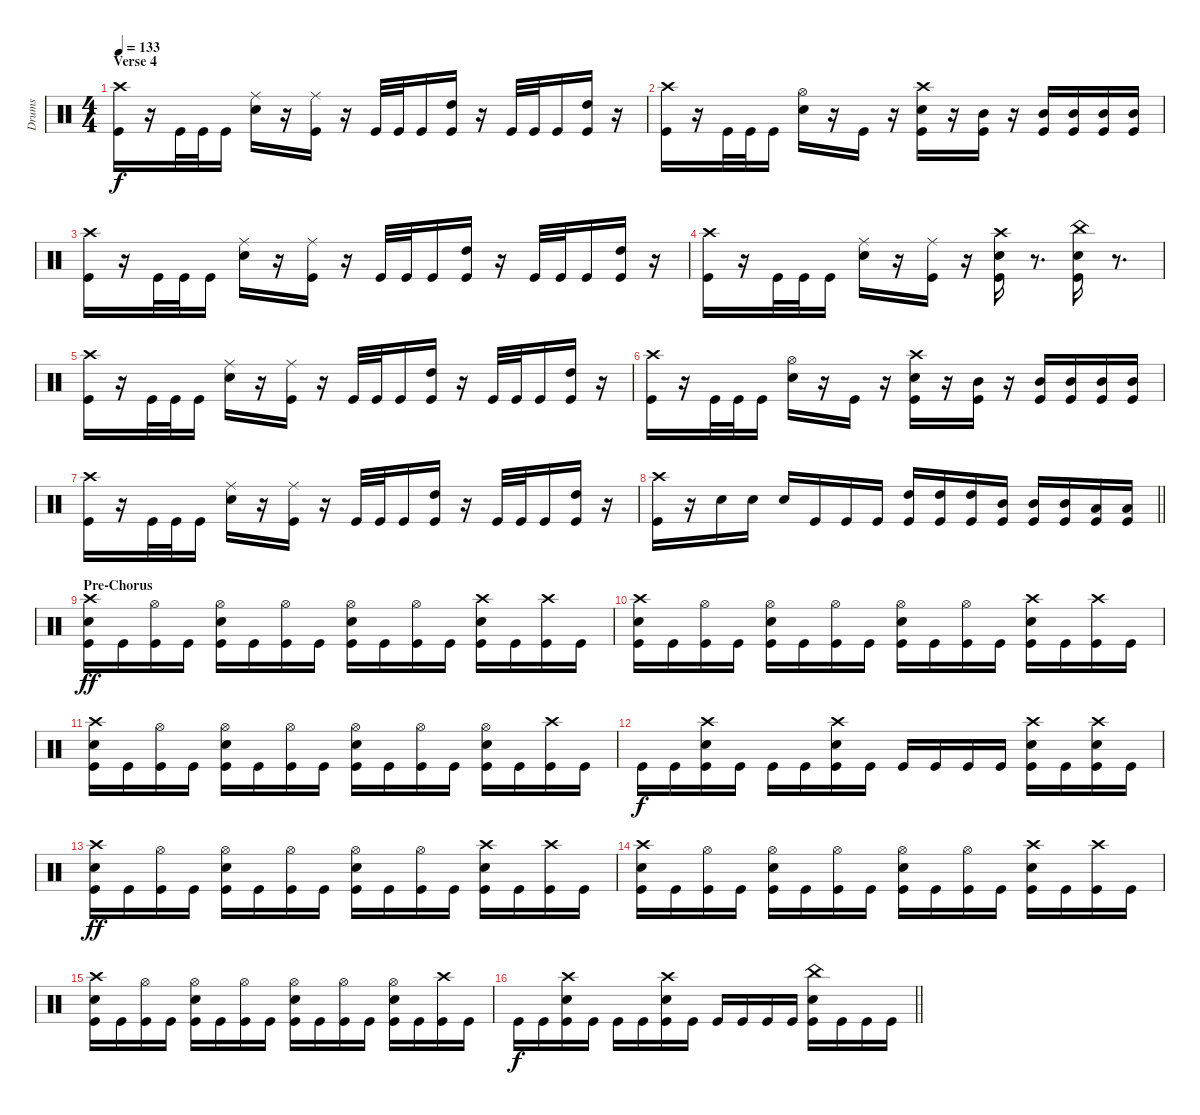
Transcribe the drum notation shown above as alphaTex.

\track ("Drums" "Drums") {instrument percussion}
\staff {score}
\articulation defaults
\ts (4 4)
\section ("" "Verse 4")
\tempo 133
\clef neutral
\ks c
("Crash high (hit)" "Kick (hit)").16{dy f} r.16 "Kick (hit)".32 "Kick (hit)".32 "Kick (hit)".16 ("Ride (middle)" "Snare (hit) 2").16 r.16 ("Ride (middle)" "Kick (hit)").16 r.16 "Kick (hit)".32 "Kick (hit)".32 "Kick (hit)".16 ("High Tom (hit)" "Kick (hit)").16 r.16 "Kick (hit)".32 "Kick (hit)".32 "Kick (hit)".16 ("High Tom (hit)" "Kick (hit)").16 r.16 |
("Crash high (hit)" "Kick (hit)").16 r.16 "Kick (hit)".32 "Kick (hit)".32 "Kick (hit)".16 ("Hi-Hat (open)" "Snare (hit) 2").16 r.16 "Kick (hit)".16 r.16 ("Crash high (hit)" "Snare (hit) 2" "Kick (hit)").16 r.16 ("Mid Tom (hit)" "Kick (hit)").16 r.16 ("Mid Tom (hit)" "Kick (hit)").16 ("Mid Tom (hit)" "Kick (hit)").16 ("Mid Tom (hit)" "Kick (hit)").16 ("Mid Tom (hit)" "Kick (hit)").16 |
("Crash high (hit)" "Kick (hit)").16 r.16 "Kick (hit)".32 "Kick (hit)".32 "Kick (hit)".16 ("Ride (middle)" "Snare (hit) 2").16 r.16 ("Ride (middle)" "Kick (hit)").16 r.16 "Kick (hit)".32 "Kick (hit)".32 "Kick (hit)".16 ("High Tom (hit)" "Kick (hit)").16 r.16 "Kick (hit)".32 "Kick (hit)".32 "Kick (hit)".16 ("High Tom (hit)" "Kick (hit)").16 r.16 |
("Crash high (hit)" "Kick (hit)").16 r.16 "Kick (hit)".32 "Kick (hit)".32 "Kick (hit)".16 ("Ride (middle)" "Snare (hit) 2").16 r.16 ("Ride (middle)" "Kick (hit)").16 r.16 ("Crash high (hit)" "Snare (hit) 2" "Kick (hit)").16 r.8{d} ("China (hit)" "Snare (hit) 2" "Kick (hit)").16 r.8{d} |
("Crash high (hit)" "Kick (hit)").16 r.16 "Kick (hit)".32 "Kick (hit)".32 "Kick (hit)".16 ("Ride (middle)" "Snare (hit) 2").16 r.16 ("Ride (middle)" "Kick (hit)").16 r.16 "Kick (hit)".32 "Kick (hit)".32 "Kick (hit)".16 ("High Tom (hit)" "Kick (hit)").16 r.16 "Kick (hit)".32 "Kick (hit)".32 "Kick (hit)".16 ("High Tom (hit)" "Kick (hit)").16 r.16 |
("Crash high (hit)" "Kick (hit)").16 r.16 "Kick (hit)".32 "Kick (hit)".32 "Kick (hit)".16 ("Hi-Hat (open)" "Snare (hit) 2").16 r.16 "Kick (hit)".16 r.16 ("Crash high (hit)" "Snare (hit) 2" "Kick (hit)").16 r.16 ("Mid Tom (hit)" "Kick (hit)").16 r.16 ("Mid Tom (hit)" "Kick (hit)").16 ("Mid Tom (hit)" "Kick (hit)").16 ("Mid Tom (hit)" "Kick (hit)").16 ("Mid Tom (hit)" "Kick (hit)").16 |
("Crash high (hit)" "Kick (hit)").16 r.16 "Kick (hit)".32 "Kick (hit)".32 "Kick (hit)".16 ("Ride (middle)" "Snare (hit) 2").16 r.16 ("Ride (middle)" "Kick (hit)").16 r.16 "Kick (hit)".32 "Kick (hit)".32 "Kick (hit)".16 ("High Tom (hit)" "Kick (hit)").16 r.16 "Kick (hit)".32 "Kick (hit)".32 "Kick (hit)".16 ("High Tom (hit)" "Kick (hit)").16 r.16 |
\barLineRight lightlight
("Crash high (hit)" "Kick (hit)").16 r.16 "Snare (hit) 2".16 "Snare (hit) 2".16 "Snare (hit) 2".16 "Kick (hit)".16 "Kick (hit)".16 "Kick (hit)".16 ("High Tom (hit)" "Kick (hit)").16 ("High Tom (hit)" "Kick (hit)").16 ("High Tom (hit)" "Kick (hit)").16 ("Mid Tom (hit)" "Kick (hit)").16 ("Mid Tom (hit)" "Kick (hit)").16 ("Mid Tom (hit)" "Kick (hit)").16 ("Low Tom (hit)" "Kick (hit)").16 ("Low Tom (hit)" "Kick (hit)").16 |
\section ("" "Pre-Chorus")
("Crash high (hit)" "Snare (hit) 2" "Kick (hit)").16{dy ff} "Kick (hit)".16 ("Hi-Hat (open)" "Kick (hit)").16 "Kick (hit)".16 ("Hi-Hat (open)" "Snare (hit) 2" "Kick (hit)").16 "Kick (hit)".16 ("Hi-Hat (open)" "Kick (hit)").16 "Kick (hit)".16 ("Hi-Hat (open)" "Snare (hit) 2" "Kick (hit)").16 "Kick (hit)".16 ("Hi-Hat (open)" "Kick (hit)").16 "Kick (hit)".16 ("Crash high (hit)" "Snare (hit) 2" "Kick (hit)").16 "Kick (hit)".16 ("Crash high (hit)" "Kick (hit)").16 "Kick (hit)".16 |
("Crash high (hit)" "Snare (hit) 2" "Kick (hit)").16 "Kick (hit)".16 ("Hi-Hat (open)" "Kick (hit)").16 "Kick (hit)".16 ("Hi-Hat (open)" "Snare (hit) 2" "Kick (hit)").16 "Kick (hit)".16 ("Hi-Hat (open)" "Kick (hit)").16 "Kick (hit)".16 ("Hi-Hat (open)" "Snare (hit) 2" "Kick (hit)").16 "Kick (hit)".16 ("Hi-Hat (open)" "Kick (hit)").16 "Kick (hit)".16 ("Crash high (hit)" "Snare (hit) 2" "Kick (hit)").16 "Kick (hit)".16 ("Crash high (hit)" "Kick (hit)").16 "Kick (hit)".16 |
("Crash high (hit)" "Snare (hit) 2" "Kick (hit)").16 "Kick (hit)".16 ("Hi-Hat (open)" "Kick (hit)").16 "Kick (hit)".16 ("Hi-Hat (open)" "Snare (hit) 2" "Kick (hit)").16 "Kick (hit)".16 ("Hi-Hat (open)" "Kick (hit)").16 "Kick (hit)".16 ("Hi-Hat (open)" "Snare (hit) 2" "Kick (hit)").16 "Kick (hit)".16 ("Hi-Hat (open)" "Kick (hit)").16 "Kick (hit)".16 ("Hi-Hat (open)" "Snare (hit) 2" "Kick (hit)").16 "Kick (hit)".16 ("Crash high (hit)" "Kick (hit)").16 "Kick (hit)".16 |
"Kick (hit)".16{dy f} "Kick (hit)".16 ("Crash high (hit)" "Snare (hit) 2" "Kick (hit)").16 "Kick (hit)".16 "Kick (hit)".16 "Kick (hit)".16 ("Crash high (hit)" "Snare (hit) 2" "Kick (hit)").16 "Kick (hit)".16 "Kick (hit)".16 "Kick (hit)".16 "Kick (hit)".16 "Kick (hit)".16 ("Crash high (hit)" "Snare (hit) 2" "Kick (hit)").16 "Kick (hit)".16 ("Crash high (hit)" "Snare (hit) 2" "Kick (hit)").16 "Kick (hit)".16 |
("Crash high (hit)" "Snare (hit) 2" "Kick (hit)").16{dy ff} "Kick (hit)".16 ("Hi-Hat (open)" "Kick (hit)").16 "Kick (hit)".16 ("Hi-Hat (open)" "Snare (hit) 2" "Kick (hit)").16 "Kick (hit)".16 ("Hi-Hat (open)" "Kick (hit)").16 "Kick (hit)".16 ("Hi-Hat (open)" "Snare (hit) 2" "Kick (hit)").16 "Kick (hit)".16 ("Hi-Hat (open)" "Kick (hit)").16 "Kick (hit)".16 ("Crash high (hit)" "Snare (hit) 2" "Kick (hit)").16 "Kick (hit)".16 ("Crash high (hit)" "Kick (hit)").16 "Kick (hit)".16 |
("Crash high (hit)" "Snare (hit) 2" "Kick (hit)").16 "Kick (hit)".16 ("Hi-Hat (open)" "Kick (hit)").16 "Kick (hit)".16 ("Hi-Hat (open)" "Snare (hit) 2" "Kick (hit)").16 "Kick (hit)".16 ("Hi-Hat (open)" "Kick (hit)").16 "Kick (hit)".16 ("Hi-Hat (open)" "Snare (hit) 2" "Kick (hit)").16 "Kick (hit)".16 ("Hi-Hat (open)" "Kick (hit)").16 "Kick (hit)".16 ("Crash high (hit)" "Snare (hit) 2" "Kick (hit)").16 "Kick (hit)".16 ("Crash high (hit)" "Kick (hit)").16 "Kick (hit)".16 |
("Crash high (hit)" "Snare (hit) 2" "Kick (hit)").16 "Kick (hit)".16 ("Hi-Hat (open)" "Kick (hit)").16 "Kick (hit)".16 ("Hi-Hat (open)" "Snare (hit) 2" "Kick (hit)").16 "Kick (hit)".16 ("Hi-Hat (open)" "Kick (hit)").16 "Kick (hit)".16 ("Hi-Hat (open)" "Snare (hit) 2" "Kick (hit)").16 "Kick (hit)".16 ("Hi-Hat (open)" "Kick (hit)").16 "Kick (hit)".16 ("Hi-Hat (open)" "Snare (hit) 2" "Kick (hit)").16 "Kick (hit)".16 ("Crash high (hit)" "Kick (hit)").16 "Kick (hit)".16 |
\barLineRight lightlight "Kick (hit)".16{dy f} "Kick (hit)".16
("Crash high (hit)" "Snare (hit) 2" "Kick (hit)").16 "Kick (hit)".16 "Kick (hit)".16 "Kick (hit)".16 ("Crash high (hit)" "Snare (hit) 2" "Kick (hit)").16 "Kick (hit)".16 "Kick (hit)".16 "Kick (hit)".16 "Kick (hit)".16 "Kick (hit)".16 ("China (hit)" "Snare (hit) 2" "Kick (hit)").16 "Kick (hit)".16 "Kick (hit)".16 "Kick (hit)".16
